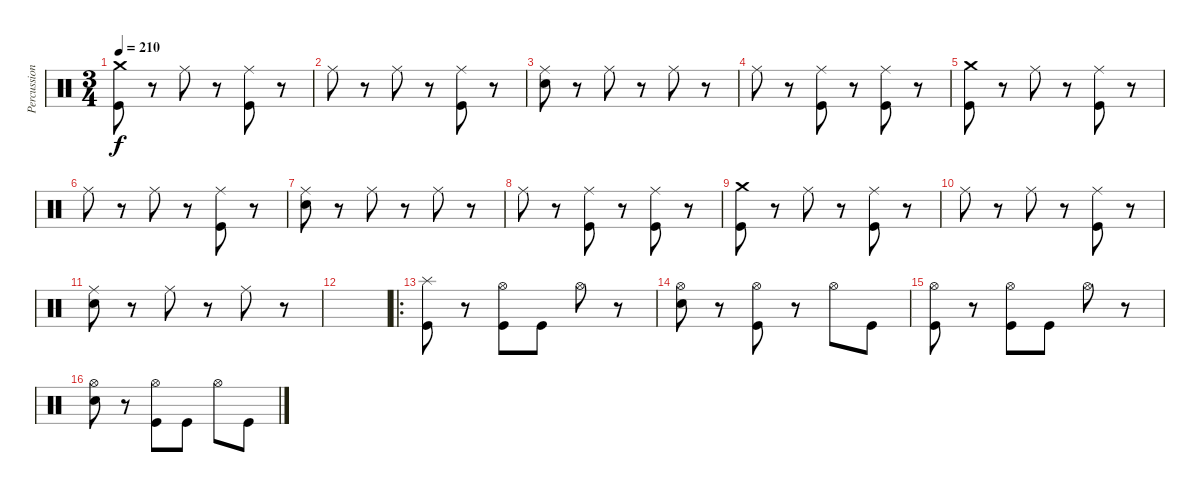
\track ("Percussion" "Percussion") {instrument percussion}
\staff {score}
\articulation defaults
\ts (3 4)
\tempo 210
\clef neutral
\ks c
("Crash medium (hit)" "Kick (hit)").8{dy f} r.8 "Ride (middle)".8 r.8 ("Ride (middle)" "Kick (hit)").8 r.8 |
"Ride (middle)".8 r.8 "Ride (middle)".8 r.8 ("Ride (middle)" "Kick (hit)").8 r.8 |
("Ride (middle)" "Electric Snare (hit)").8 r.8 "Ride (middle)".8 r.8 "Ride (middle)".8 r.8 |
"Ride (middle)".8 r.8 ("Ride (middle)" "Kick (hit)").8 r.8 ("Ride (middle)" "Kick (hit)").8 r.8 |
("Crash medium (hit)" "Kick (hit)").8 r.8 "Ride (middle)".8 r.8 ("Ride (middle)" "Kick (hit)").8 r.8 |
"Ride (middle)".8 r.8 "Ride (middle)".8 r.8 ("Ride (middle)" "Kick (hit)").8 r.8 |
("Ride (middle)" "Electric Snare (hit)").8 r.8 "Ride (middle)".8 r.8 "Ride (middle)".8 r.8 |
"Ride (middle)".8 r.8 ("Ride (middle)" "Kick (hit)").8 r.8 ("Ride (middle)" "Kick (hit)").8 r.8 |
("Crash medium (hit)" "Kick (hit)").8 r.8 "Ride (middle)".8 r.8 ("Ride (middle)" "Kick (hit)").8 r.8 |
"Ride (middle)".8 r.8 "Ride (middle)".8 r.8 ("Ride (middle)" "Kick (hit)").8 r.8 |
("Ride (middle)" "Electric Snare (hit)").8 r.8 "Ride (middle)".8 r.8 "Ride (middle)".8 r.8 |
|
\ro
("Splash (hit)" "Kick (hit)").8 r.8 ("Hi-Hat (open)" "Kick (hit)").8 "Kick (hit)".8 "Hi-Hat (open)".8 r.8 |
("Hi-Hat (open)" "Electric Snare (hit)").8 r.8 ("Hi-Hat (open)" "Kick (hit)").8 r.8 "Hi-Hat (open)".8 "Kick (hit)".8 |
("Hi-Hat (open)" "Kick (hit)").8 r.8 ("Hi-Hat (open)" "Kick (hit)").8 "Kick (hit)".8 "Hi-Hat (open)".8 r.8 |
("Hi-Hat (open)" "Electric Snare (hit)").8 r.8 ("Hi-Hat (open)" "Kick (hit)").8 "Kick (hit)".8 "Hi-Hat (open)".8 "Kick (hit)".8
